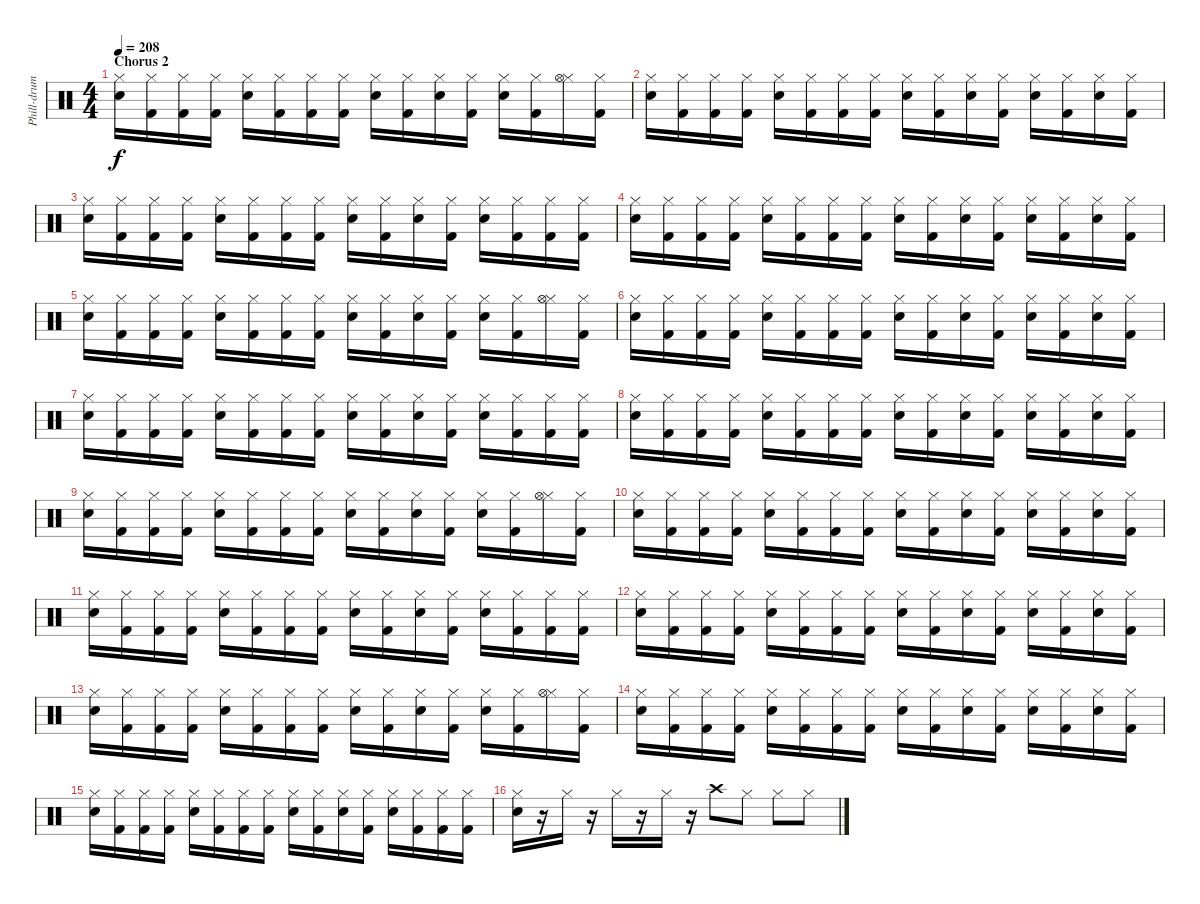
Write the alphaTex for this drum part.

\track ("Phill-drum" "Phill-drum") {instrument percussion}
\staff {score}
\articulation defaults
\ts (4 4)
\section ("" "Chorus 2")
\tempo 208
\clef neutral
\ks c
("Hi-Hat (closed)" "Electric Snare (hit)").16{dy f} ("Hi-Hat (closed)" "Kick (hit) 2").16 ("Hi-Hat (closed)" "Kick (hit) 2").16 ("Hi-Hat (closed)" "Kick (hit) 2").16 ("Hi-Hat (closed)" "Electric Snare (hit)").16 ("Hi-Hat (closed)" "Kick (hit) 2").16 ("Hi-Hat (closed)" "Kick (hit) 2").16 ("Hi-Hat (closed)" "Kick (hit) 2").16 ("Hi-Hat (closed)" "Electric Snare (hit)").16 ("Hi-Hat (closed)" "Kick (hit) 2").16 ("Hi-Hat (closed)" "Electric Snare (hit)").16 ("Hi-Hat (closed)" "Kick (hit) 2").16 ("Hi-Hat (closed)" "Electric Snare (hit)").16 ("Hi-Hat (closed)" "Kick (hit) 2").16 ("Hi-Hat (closed)" "Hi-Hat (open)").16 ("Hi-Hat (closed)" "Kick (hit) 2").16 |
("Hi-Hat (closed)" "Electric Snare (hit)").16 ("Hi-Hat (closed)" "Kick (hit) 2").16 ("Hi-Hat (closed)" "Kick (hit) 2").16 ("Hi-Hat (closed)" "Kick (hit) 2").16 ("Hi-Hat (closed)" "Electric Snare (hit)").16 ("Hi-Hat (closed)" "Kick (hit) 2").16 ("Hi-Hat (closed)" "Kick (hit) 2").16 ("Hi-Hat (closed)" "Kick (hit) 2").16 ("Hi-Hat (closed)" "Electric Snare (hit)").16 ("Hi-Hat (closed)" "Kick (hit) 2").16 ("Hi-Hat (closed)" "Electric Snare (hit)").16 ("Hi-Hat (closed)" "Kick (hit) 2").16 ("Hi-Hat (closed)" "Electric Snare (hit)").16 ("Hi-Hat (closed)" "Kick (hit) 2").16 ("Hi-Hat (closed)" "Electric Snare (hit)").16 ("Hi-Hat (closed)" "Kick (hit) 2").16 |
("Hi-Hat (closed)" "Electric Snare (hit)").16 ("Hi-Hat (closed)" "Kick (hit) 2").16 ("Hi-Hat (closed)" "Kick (hit) 2").16 ("Hi-Hat (closed)" "Kick (hit) 2").16 ("Hi-Hat (closed)" "Electric Snare (hit)").16 ("Hi-Hat (closed)" "Kick (hit) 2").16 ("Hi-Hat (closed)" "Kick (hit) 2").16 ("Hi-Hat (closed)" "Kick (hit) 2").16 ("Hi-Hat (closed)" "Electric Snare (hit)").16 ("Hi-Hat (closed)" "Kick (hit) 2").16 ("Hi-Hat (closed)" "Electric Snare (hit)").16 ("Hi-Hat (closed)" "Kick (hit) 2").16 ("Hi-Hat (closed)" "Electric Snare (hit)").16 ("Hi-Hat (closed)" "Kick (hit) 2").16 ("Hi-Hat (closed)" "Kick (hit) 2").16 ("Hi-Hat (closed)" "Kick (hit) 2").16 |
("Hi-Hat (closed)" "Electric Snare (hit)").16 ("Hi-Hat (closed)" "Kick (hit) 2").16 ("Hi-Hat (closed)" "Kick (hit) 2").16 ("Hi-Hat (closed)" "Kick (hit) 2").16 ("Hi-Hat (closed)" "Electric Snare (hit)").16 ("Hi-Hat (closed)" "Kick (hit) 2").16 ("Hi-Hat (closed)" "Kick (hit) 2").16 ("Hi-Hat (closed)" "Kick (hit) 2").16 ("Hi-Hat (closed)" "Electric Snare (hit)").16 ("Hi-Hat (closed)" "Kick (hit) 2").16 ("Hi-Hat (closed)" "Electric Snare (hit)").16 ("Hi-Hat (closed)" "Kick (hit) 2").16 ("Hi-Hat (closed)" "Electric Snare (hit)").16 ("Hi-Hat (closed)" "Kick (hit) 2").16 ("Hi-Hat (closed)" "Electric Snare (hit)").16 ("Hi-Hat (closed)" "Kick (hit) 2").16 |
("Hi-Hat (closed)" "Electric Snare (hit)").16 ("Hi-Hat (closed)" "Kick (hit) 2").16 ("Hi-Hat (closed)" "Kick (hit) 2").16 ("Hi-Hat (closed)" "Kick (hit) 2").16 ("Hi-Hat (closed)" "Electric Snare (hit)").16 ("Hi-Hat (closed)" "Kick (hit) 2").16 ("Hi-Hat (closed)" "Kick (hit) 2").16 ("Hi-Hat (closed)" "Kick (hit) 2").16 ("Hi-Hat (closed)" "Electric Snare (hit)").16 ("Hi-Hat (closed)" "Kick (hit) 2").16 ("Hi-Hat (closed)" "Electric Snare (hit)").16 ("Hi-Hat (closed)" "Kick (hit) 2").16 ("Hi-Hat (closed)" "Electric Snare (hit)").16 ("Hi-Hat (closed)" "Kick (hit) 2").16 ("Hi-Hat (closed)" "Hi-Hat (open)").16 ("Hi-Hat (closed)" "Kick (hit) 2").16 |
("Hi-Hat (closed)" "Electric Snare (hit)").16 ("Hi-Hat (closed)" "Kick (hit) 2").16 ("Hi-Hat (closed)" "Kick (hit) 2").16 ("Hi-Hat (closed)" "Kick (hit) 2").16 ("Hi-Hat (closed)" "Electric Snare (hit)").16 ("Hi-Hat (closed)" "Kick (hit) 2").16 ("Hi-Hat (closed)" "Kick (hit) 2").16 ("Hi-Hat (closed)" "Kick (hit) 2").16 ("Hi-Hat (closed)" "Electric Snare (hit)").16 ("Hi-Hat (closed)" "Kick (hit) 2").16 ("Hi-Hat (closed)" "Electric Snare (hit)").16 ("Hi-Hat (closed)" "Kick (hit) 2").16 ("Hi-Hat (closed)" "Electric Snare (hit)").16 ("Hi-Hat (closed)" "Kick (hit) 2").16 ("Hi-Hat (closed)" "Electric Snare (hit)").16 ("Hi-Hat (closed)" "Kick (hit) 2").16 |
("Hi-Hat (closed)" "Electric Snare (hit)").16 ("Hi-Hat (closed)" "Kick (hit) 2").16 ("Hi-Hat (closed)" "Kick (hit) 2").16 ("Hi-Hat (closed)" "Kick (hit) 2").16 ("Hi-Hat (closed)" "Electric Snare (hit)").16 ("Hi-Hat (closed)" "Kick (hit) 2").16 ("Hi-Hat (closed)" "Kick (hit) 2").16 ("Hi-Hat (closed)" "Kick (hit) 2").16 ("Hi-Hat (closed)" "Electric Snare (hit)").16 ("Hi-Hat (closed)" "Kick (hit) 2").16 ("Hi-Hat (closed)" "Electric Snare (hit)").16 ("Hi-Hat (closed)" "Kick (hit) 2").16 ("Hi-Hat (closed)" "Electric Snare (hit)").16 ("Hi-Hat (closed)" "Kick (hit) 2").16 ("Hi-Hat (closed)" "Kick (hit) 2").16 ("Hi-Hat (closed)" "Kick (hit) 2").16 |
("Hi-Hat (closed)" "Electric Snare (hit)").16 ("Hi-Hat (closed)" "Kick (hit) 2").16 ("Hi-Hat (closed)" "Kick (hit) 2").16 ("Hi-Hat (closed)" "Kick (hit) 2").16 ("Hi-Hat (closed)" "Electric Snare (hit)").16 ("Hi-Hat (closed)" "Kick (hit) 2").16 ("Hi-Hat (closed)" "Kick (hit) 2").16 ("Hi-Hat (closed)" "Kick (hit) 2").16 ("Hi-Hat (closed)" "Electric Snare (hit)").16 ("Hi-Hat (closed)" "Kick (hit) 2").16 ("Hi-Hat (closed)" "Electric Snare (hit)").16 ("Hi-Hat (closed)" "Kick (hit) 2").16 ("Hi-Hat (closed)" "Electric Snare (hit)").16 ("Hi-Hat (closed)" "Kick (hit) 2").16 ("Hi-Hat (closed)" "Electric Snare (hit)").16 ("Hi-Hat (closed)" "Kick (hit) 2").16 |
("Hi-Hat (closed)" "Electric Snare (hit)").16 ("Hi-Hat (closed)" "Kick (hit) 2").16 ("Hi-Hat (closed)" "Kick (hit) 2").16 ("Hi-Hat (closed)" "Kick (hit) 2").16 ("Hi-Hat (closed)" "Electric Snare (hit)").16 ("Hi-Hat (closed)" "Kick (hit) 2").16 ("Hi-Hat (closed)" "Kick (hit) 2").16 ("Hi-Hat (closed)" "Kick (hit) 2").16 ("Hi-Hat (closed)" "Electric Snare (hit)").16 ("Hi-Hat (closed)" "Kick (hit) 2").16 ("Hi-Hat (closed)" "Electric Snare (hit)").16 ("Hi-Hat (closed)" "Kick (hit) 2").16 ("Hi-Hat (closed)" "Electric Snare (hit)").16 ("Hi-Hat (closed)" "Kick (hit) 2").16 ("Hi-Hat (closed)" "Hi-Hat (open)").16 ("Hi-Hat (closed)" "Kick (hit) 2").16 |
("Hi-Hat (closed)" "Electric Snare (hit)").16 ("Hi-Hat (closed)" "Kick (hit) 2").16 ("Hi-Hat (closed)" "Kick (hit) 2").16 ("Hi-Hat (closed)" "Kick (hit) 2").16 ("Hi-Hat (closed)" "Electric Snare (hit)").16 ("Hi-Hat (closed)" "Kick (hit) 2").16 ("Hi-Hat (closed)" "Kick (hit) 2").16 ("Hi-Hat (closed)" "Kick (hit) 2").16 ("Hi-Hat (closed)" "Electric Snare (hit)").16 ("Hi-Hat (closed)" "Kick (hit) 2").16 ("Hi-Hat (closed)" "Electric Snare (hit)").16 ("Hi-Hat (closed)" "Kick (hit) 2").16 ("Hi-Hat (closed)" "Electric Snare (hit)").16 ("Hi-Hat (closed)" "Kick (hit) 2").16 ("Hi-Hat (closed)" "Electric Snare (hit)").16 ("Hi-Hat (closed)" "Kick (hit) 2").16 |
("Hi-Hat (closed)" "Electric Snare (hit)").16 ("Hi-Hat (closed)" "Kick (hit) 2").16 ("Hi-Hat (closed)" "Kick (hit) 2").16 ("Hi-Hat (closed)" "Kick (hit) 2").16 ("Hi-Hat (closed)" "Electric Snare (hit)").16 ("Hi-Hat (closed)" "Kick (hit) 2").16 ("Hi-Hat (closed)" "Kick (hit) 2").16 ("Hi-Hat (closed)" "Kick (hit) 2").16 ("Hi-Hat (closed)" "Electric Snare (hit)").16 ("Hi-Hat (closed)" "Kick (hit) 2").16 ("Hi-Hat (closed)" "Electric Snare (hit)").16 ("Hi-Hat (closed)" "Kick (hit) 2").16 ("Hi-Hat (closed)" "Electric Snare (hit)").16 ("Hi-Hat (closed)" "Kick (hit) 2").16 ("Hi-Hat (closed)" "Kick (hit) 2").16 ("Hi-Hat (closed)" "Kick (hit) 2").16 |
("Hi-Hat (closed)" "Electric Snare (hit)").16 ("Hi-Hat (closed)" "Kick (hit) 2").16 ("Hi-Hat (closed)" "Kick (hit) 2").16 ("Hi-Hat (closed)" "Kick (hit) 2").16 ("Hi-Hat (closed)" "Electric Snare (hit)").16 ("Hi-Hat (closed)" "Kick (hit) 2").16 ("Hi-Hat (closed)" "Kick (hit) 2").16 ("Hi-Hat (closed)" "Kick (hit) 2").16 ("Hi-Hat (closed)" "Electric Snare (hit)").16 ("Hi-Hat (closed)" "Kick (hit) 2").16 ("Hi-Hat (closed)" "Electric Snare (hit)").16 ("Hi-Hat (closed)" "Kick (hit) 2").16 ("Hi-Hat (closed)" "Electric Snare (hit)").16 ("Hi-Hat (closed)" "Kick (hit) 2").16 ("Hi-Hat (closed)" "Electric Snare (hit)").16 ("Hi-Hat (closed)" "Kick (hit) 2").16 |
("Hi-Hat (closed)" "Electric Snare (hit)").16 ("Hi-Hat (closed)" "Kick (hit) 2").16 ("Hi-Hat (closed)" "Kick (hit) 2").16 ("Hi-Hat (closed)" "Kick (hit) 2").16 ("Hi-Hat (closed)" "Electric Snare (hit)").16 ("Hi-Hat (closed)" "Kick (hit) 2").16 ("Hi-Hat (closed)" "Kick (hit) 2").16 ("Hi-Hat (closed)" "Kick (hit) 2").16 ("Hi-Hat (closed)" "Electric Snare (hit)").16 ("Hi-Hat (closed)" "Kick (hit) 2").16 ("Hi-Hat (closed)" "Electric Snare (hit)").16 ("Hi-Hat (closed)" "Kick (hit) 2").16 ("Hi-Hat (closed)" "Electric Snare (hit)").16 ("Hi-Hat (closed)" "Kick (hit) 2").16 ("Hi-Hat (closed)" "Hi-Hat (open)").16 ("Hi-Hat (closed)" "Kick (hit) 2").16 |
("Hi-Hat (closed)" "Electric Snare (hit)").16 ("Hi-Hat (closed)" "Kick (hit) 2").16 ("Hi-Hat (closed)" "Kick (hit) 2").16 ("Hi-Hat (closed)" "Kick (hit) 2").16 ("Hi-Hat (closed)" "Electric Snare (hit)").16 ("Hi-Hat (closed)" "Kick (hit) 2").16 ("Hi-Hat (closed)" "Kick (hit) 2").16 ("Hi-Hat (closed)" "Kick (hit) 2").16 ("Hi-Hat (closed)" "Electric Snare (hit)").16 ("Hi-Hat (closed)" "Kick (hit) 2").16 ("Hi-Hat (closed)" "Electric Snare (hit)").16 ("Hi-Hat (closed)" "Kick (hit) 2").16 ("Hi-Hat (closed)" "Electric Snare (hit)").16 ("Hi-Hat (closed)" "Kick (hit) 2").16 ("Hi-Hat (closed)" "Electric Snare (hit)").16 ("Hi-Hat (closed)" "Kick (hit) 2").16 |
("Hi-Hat (closed)" "Electric Snare (hit)").16 ("Hi-Hat (closed)" "Kick (hit) 2").16 ("Hi-Hat (closed)" "Kick (hit) 2").16 ("Hi-Hat (closed)" "Kick (hit) 2").16 ("Hi-Hat (closed)" "Electric Snare (hit)").16 ("Hi-Hat (closed)" "Kick (hit) 2").16 ("Hi-Hat (closed)" "Kick (hit) 2").16 ("Hi-Hat (closed)" "Kick (hit) 2").16 ("Hi-Hat (closed)" "Electric Snare (hit)").16 ("Hi-Hat (closed)" "Kick (hit) 2").16 ("Hi-Hat (closed)" "Electric Snare (hit)").16 ("Hi-Hat (closed)" "Kick (hit) 2").16 ("Hi-Hat (closed)" "Electric Snare (hit)").16 ("Hi-Hat (closed)" "Kick (hit) 2").16 ("Hi-Hat (closed)" "Kick (hit) 2").16 ("Hi-Hat (closed)" "Kick (hit) 2").16 |
("Hi-Hat (closed)" "Electric Snare (hit)").16 r.16 "Hi-Hat (closed)".16 r.16 "Hi-Hat (closed)".16 r.16 "Hi-Hat (closed)".16 r.16 "Crash high (hit)".8 "Hi-Hat (closed)".8 "Hi-Hat (closed)".8 "Hi-Hat (closed)".8
